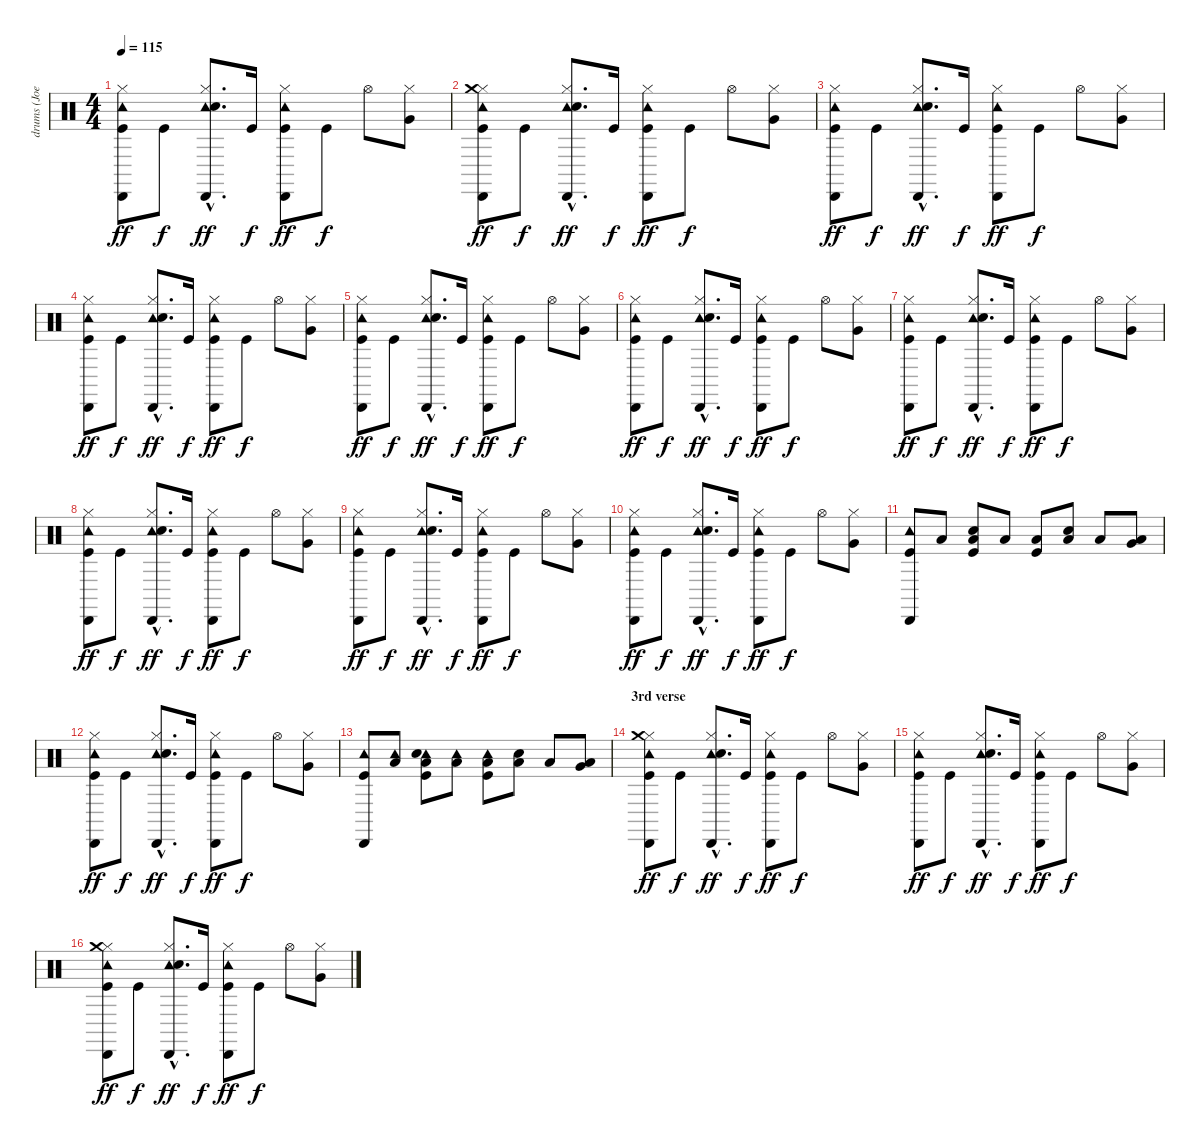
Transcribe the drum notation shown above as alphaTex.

\track ("drums (Joey Castillo)" "drums (Joe") {instrument percussion}
\staff {score}
\articulation defaults
\ts (4 4)
\tempo 115
\clef neutral
\ks c
("Tambourine (hit)" "Cabasa (hit)" "Kick (hit)" "Hi-Hat (closed)").8{dy ff} "Kick (hit)".8{dy f} ("Tambourine (hit)"{hac} "Cabasa (hit)"{hac} "Electric Snare (hit)"{hac} "Hi-Hat (closed)"{hac}).8{d dy ff} "Kick (hit)".16{dy f} ("Tambourine (hit)" "Cabasa (hit)" "Kick (hit)" "Hi-Hat (closed)").8{dy ff} "Kick (hit)".8{dy f} "Hi-Hat (open)".8 ("Very Low Tom (hit)" "Hi-Hat (closed)").8 |
("Tambourine (hit)" "Cabasa (hit)" "Kick (hit)" "Hi-Hat (closed)" "Crash medium (hit)").8{dy ff} "Kick (hit)".8{dy f} ("Tambourine (hit)"{hac} "Cabasa (hit)"{hac} "Electric Snare (hit)"{hac} "Hi-Hat (closed)"{hac}).8{d dy ff} "Kick (hit)".16{dy f} ("Tambourine (hit)" "Cabasa (hit)" "Kick (hit)" "Hi-Hat (closed)").8{dy ff} "Kick (hit)".8{dy f} "Hi-Hat (open)".8 ("Very Low Tom (hit)" "Hi-Hat (closed)").8 |
("Tambourine (hit)" "Cabasa (hit)" "Kick (hit)" "Hi-Hat (closed)").8{dy ff} "Kick (hit)".8{dy f} ("Tambourine (hit)"{hac} "Cabasa (hit)"{hac} "Electric Snare (hit)"{hac} "Hi-Hat (closed)"{hac}).8{d dy ff} "Kick (hit)".16{dy f} ("Tambourine (hit)" "Cabasa (hit)" "Kick (hit)" "Hi-Hat (closed)").8{dy ff} "Kick (hit)".8{dy f} "Hi-Hat (open)".8 ("Very Low Tom (hit)" "Hi-Hat (closed)").8 |
("Tambourine (hit)" "Cabasa (hit)" "Kick (hit)" "Hi-Hat (closed)").8{dy ff} "Kick (hit)".8{dy f} ("Tambourine (hit)"{hac} "Cabasa (hit)"{hac} "Electric Snare (hit)"{hac} "Hi-Hat (closed)"{hac}).8{d dy ff} "Kick (hit)".16{dy f} ("Tambourine (hit)" "Cabasa (hit)" "Kick (hit)" "Hi-Hat (closed)").8{dy ff} "Kick (hit)".8{dy f} "Hi-Hat (open)".8 ("Very Low Tom (hit)" "Hi-Hat (closed)").8 |
("Tambourine (hit)" "Cabasa (hit)" "Kick (hit)" "Hi-Hat (closed)").8{dy ff} "Kick (hit)".8{dy f} ("Tambourine (hit)"{hac} "Cabasa (hit)"{hac} "Electric Snare (hit)"{hac} "Hi-Hat (closed)"{hac}).8{d dy ff} "Kick (hit)".16{dy f} ("Tambourine (hit)" "Cabasa (hit)" "Kick (hit)" "Hi-Hat (closed)").8{dy ff} "Kick (hit)".8{dy f} "Hi-Hat (open)".8 ("Very Low Tom (hit)" "Hi-Hat (closed)").8 |
("Tambourine (hit)" "Cabasa (hit)" "Kick (hit)" "Hi-Hat (closed)").8{dy ff} "Kick (hit)".8{dy f} ("Tambourine (hit)"{hac} "Cabasa (hit)"{hac} "Electric Snare (hit)"{hac} "Hi-Hat (closed)"{hac}).8{d dy ff} "Kick (hit)".16{dy f} ("Tambourine (hit)" "Cabasa (hit)" "Kick (hit)" "Hi-Hat (closed)").8{dy ff} "Kick (hit)".8{dy f} "Hi-Hat (open)".8 ("Very Low Tom (hit)" "Hi-Hat (closed)").8 |
("Tambourine (hit)" "Cabasa (hit)" "Kick (hit)" "Hi-Hat (closed)").8{dy ff} "Kick (hit)".8{dy f} ("Tambourine (hit)"{hac} "Cabasa (hit)"{hac} "Electric Snare (hit)"{hac} "Hi-Hat (closed)"{hac}).8{d dy ff} "Kick (hit)".16{dy f} ("Tambourine (hit)" "Cabasa (hit)" "Kick (hit)" "Hi-Hat (closed)").8{dy ff} "Kick (hit)".8{dy f} "Hi-Hat (open)".8 ("Very Low Tom (hit)" "Hi-Hat (closed)").8 |
\section ("" "")
("Tambourine (hit)" "Cabasa (hit)" "Kick (hit)" "Hi-Hat (closed)").8{dy ff} "Kick (hit)".8{dy f} ("Tambourine (hit)"{hac} "Cabasa (hit)"{hac} "Electric Snare (hit)"{hac} "Hi-Hat (closed)"{hac}).8{d dy ff} "Kick (hit)".16{dy f} ("Tambourine (hit)" "Cabasa (hit)" "Kick (hit)" "Hi-Hat (closed)").8{dy ff} "Kick (hit)".8{dy f} "Hi-Hat (open)".8 ("Very Low Tom (hit)" "Hi-Hat (closed)").8 |
("Tambourine (hit)" "Cabasa (hit)" "Kick (hit)" "Hi-Hat (closed)").8{dy ff} "Kick (hit)".8{dy f} ("Tambourine (hit)"{hac} "Cabasa (hit)"{hac} "Electric Snare (hit)"{hac} "Hi-Hat (closed)"{hac}).8{d dy ff} "Kick (hit)".16{dy f} ("Tambourine (hit)" "Cabasa (hit)" "Kick (hit)" "Hi-Hat (closed)").8{dy ff} "Kick (hit)".8{dy f} "Hi-Hat (open)".8 ("Very Low Tom (hit)" "Hi-Hat (closed)").8 |
\section ("" "")
("Tambourine (hit)" "Cabasa (hit)" "Kick (hit)" "Hi-Hat (closed)").8{dy ff} "Kick (hit)".8{dy f} ("Tambourine (hit)"{hac} "Cabasa (hit)"{hac} "Electric Snare (hit)"{hac} "Hi-Hat (closed)"{hac}).8{d dy ff} "Kick (hit)".16{dy f} ("Tambourine (hit)" "Cabasa (hit)" "Kick (hit)" "Hi-Hat (closed)").8{dy ff} "Kick (hit)".8{dy f} "Hi-Hat (open)".8 ("Very Low Tom (hit)" "Hi-Hat (closed)").8 |
("Tambourine (hit)" "Cabasa (hit)" "Kick (hit)").8 "Low Tom (hit)".8 ("Low Tom (hit)" "Electric Snare (hit)" "Kick (hit)").8 "Low Tom (hit)".8 ("Low Tom (hit)" "Kick (hit)").8 ("Low Tom (hit)" "Electric Snare (hit)").8 "Low Tom (hit)".8 ("Low Tom (hit)" "Very Low Tom (hit)").8 |
("Tambourine (hit)" "Cabasa (hit)" "Kick (hit)" "Hi-Hat (closed)").8{dy ff} "Kick (hit)".8{dy f} ("Tambourine (hit)"{hac} "Cabasa (hit)"{hac} "Electric Snare (hit)"{hac} "Hi-Hat (closed)"{hac}).8{d dy ff} "Kick (hit)".16{dy f} ("Tambourine (hit)" "Cabasa (hit)" "Kick (hit)" "Hi-Hat (closed)").8{dy ff} "Kick (hit)".8{dy f} "Hi-Hat (open)".8 ("Very Low Tom (hit)" "Hi-Hat (closed)").8 |
("Tambourine (hit)" "Cabasa (hit)" "Kick (hit)").8 ("Tambourine (hit)" "Low Tom (hit)").8 ("Tambourine (hit)" "Low Tom (hit)" "Electric Snare (hit)" "Kick (hit)").8 ("Tambourine (hit)" "Low Tom (hit)").8 ("Tambourine (hit)" "Low Tom (hit)" "Kick (hit)").8 ("Low Tom (hit)" "Electric Snare (hit)").8 "Low Tom (hit)".8 ("Low Tom (hit)" "Very Low Tom (hit)").8 |
\section ("" "3rd verse")
("Tambourine (hit)" "Cabasa (hit)" "Kick (hit)" "Hi-Hat (closed)" "Crash medium (hit)").8{dy ff} "Kick (hit)".8{dy f} ("Tambourine (hit)"{hac} "Cabasa (hit)"{hac} "Electric Snare (hit)"{hac} "Hi-Hat (closed)"{hac}).8{d dy ff} "Kick (hit)".16{dy f} ("Tambourine (hit)" "Cabasa (hit)" "Kick (hit)" "Hi-Hat (closed)").8{dy ff} "Kick (hit)".8{dy f} "Hi-Hat (open)".8 ("Very Low Tom (hit)" "Hi-Hat (closed)").8 |
("Tambourine (hit)" "Cabasa (hit)" "Kick (hit)" "Hi-Hat (closed)").8{dy ff} "Kick (hit)".8{dy f} ("Tambourine (hit)"{hac} "Cabasa (hit)"{hac} "Electric Snare (hit)"{hac} "Hi-Hat (closed)"{hac}).8{d dy ff} "Kick (hit)".16{dy f} ("Tambourine (hit)" "Cabasa (hit)" "Kick (hit)" "Hi-Hat (closed)").8{dy ff} "Kick (hit)".8{dy f} "Hi-Hat (open)".8 ("Very Low Tom (hit)" "Hi-Hat (closed)").8 |
("Tambourine (hit)" "Cabasa (hit)" "Kick (hit)" "Hi-Hat (closed)" "Crash medium (hit)").8{dy ff} "Kick (hit)".8{dy f} ("Tambourine (hit)"{hac} "Cabasa (hit)"{hac} "Electric Snare (hit)"{hac} "Hi-Hat (closed)"{hac}).8{d dy ff} "Kick (hit)".16{dy f} ("Tambourine (hit)" "Cabasa (hit)" "Kick (hit)" "Hi-Hat (closed)").8{dy ff} "Kick (hit)".8{dy f} "Hi-Hat (open)".8 ("Very Low Tom (hit)" "Hi-Hat (closed)").8
